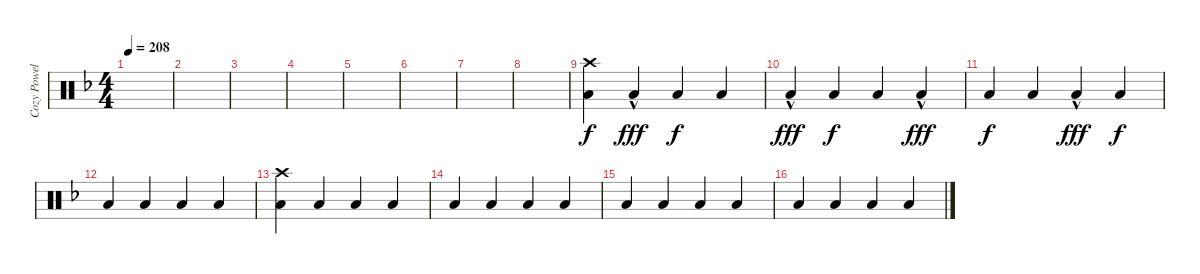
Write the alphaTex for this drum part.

\track ("Cozy Powell" "Cozy Powel") {instrument percussion}
\staff {score}
\articulation defaults
\ts (4 4)
\tempo 208
\clef neutral
\ks f
|
|
|
|
|
|
|
|
("Low Tom (hit)" "Crash high (hit)").4 "Low Tom (hit)"{hac}.4{dy fff} "Low Tom (hit)".4{dy f} "Low Tom (hit)".4 |
"Low Tom (hit)"{hac}.4{dy fff} "Low Tom (hit)".4{dy f} "Low Tom (hit)".4 "Low Tom (hit)"{hac}.4{dy fff} |
"Low Tom (hit)".4{dy f} "Low Tom (hit)".4 "Low Tom (hit)"{hac}.4{dy fff} "Low Tom (hit)".4{dy f} |
"Low Tom (hit)".4 "Low Tom (hit)".4 "Low Tom (hit)".4 "Low Tom (hit)".4 |
("Crash high (hit)" "Low Tom (hit)").4 "Low Tom (hit)".4{volume 10} "Low Tom (hit)".4 "Low Tom (hit)".4 |
"Low Tom (hit)".4 "Low Tom (hit)".4 "Low Tom (hit)".4 "Low Tom (hit)".4 |
"Low Tom (hit)".4 "Low Tom (hit)".4 "Low Tom (hit)".4 "Low Tom (hit)".4 |
"Low Tom (hit)".4 "Low Tom (hit)".4 "Low Tom (hit)".4 "Low Tom (hit)".4
